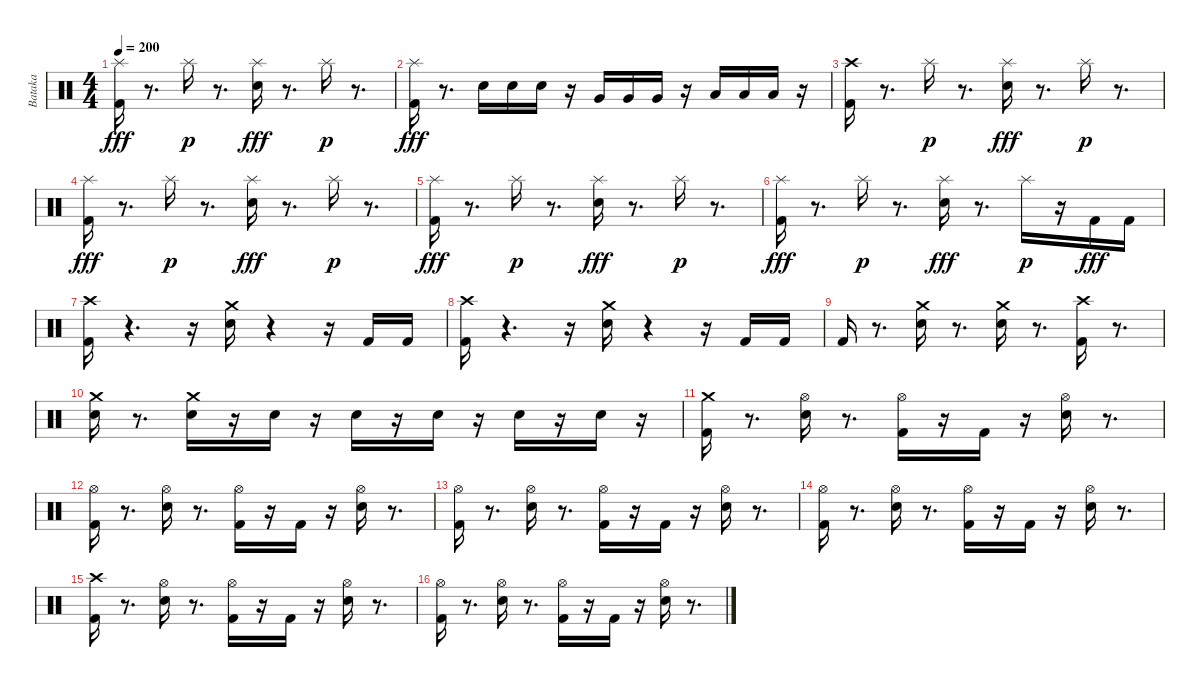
\track ("Bataka" "Bataka") {instrument percussion}
\staff {score}
\articulation defaults
\ts (4 4)
\tempo 200
\clef neutral
\ks c
("Splash (hit)" "Kick (hit) 2").16{dy fff} r.8{d} "Splash (hit)".16{dy p} r.8{d} ("Splash (hit)" "Electric Snare (hit)").16{dy fff} r.8{d} "Splash (hit)".16{dy p} r.8{d} |
("Splash (hit)" "Kick (hit) 2").16{dy fff} r.8{d} "Electric Snare (hit)".16 "Electric Snare (hit)".16 "Electric Snare (hit)".16 r.16 "Very Low Tom (hit)".16 "Very Low Tom (hit)".16 "Very Low Tom (hit)".16 r.16 "Low Floor Tom (hit)".16 "Low Floor Tom (hit)".16 "Low Floor Tom (hit)".16 r.16 |
("Kick (hit) 2" "Crash high (hit)").16 r.8{d} "Splash (hit)".16{dy p} r.8{d} ("Splash (hit)" "Electric Snare (hit)").16{dy fff} r.8{d} "Splash (hit)".16{dy p} r.8{d} |
("Splash (hit)" "Kick (hit) 2").16{dy fff} r.8{d} "Splash (hit)".16{dy p} r.8{d} ("Splash (hit)" "Electric Snare (hit)").16{dy fff} r.8{d} "Splash (hit)".16{dy p} r.8{d} |
("Splash (hit)" "Kick (hit) 2").16{dy fff} r.8{d} "Splash (hit)".16{dy p} r.8{d} ("Splash (hit)" "Electric Snare (hit)").16{dy fff} r.8{d} "Splash (hit)".16{dy p} r.8{d} |
("Splash (hit)" "Kick (hit) 2").16{dy fff} r.8{d} "Splash (hit)".16{dy p} r.8{d} ("Splash (hit)" "Electric Snare (hit)").16{dy fff} r.8{d} "Splash (hit)".16{dy p} r.16 "Kick (hit) 2".16{dy fff} "Kick (hit) 2".16 |
("Kick (hit) 2" "Crash high (hit)").16 r.4{d} r.16 ("Electric Snare (hit)" "Crash medium (hit)").16 r.4 r.16 "Kick (hit) 2".16 "Kick (hit) 2".16 |
("Crash high (hit)" "Kick (hit) 2").16 r.4{d} r.16 ("Crash medium (hit)" "Electric Snare (hit)").16 r.4 r.16 "Kick (hit) 2".16 "Kick (hit) 2".16 |
"Kick (hit) 2".16 r.8{d} ("Electric Snare (hit)" "Crash medium (hit)").16 r.8{d} ("Electric Snare (hit)" "Crash medium (hit)").16 r.8{d} ("Kick (hit) 2" "Crash high (hit)").16 r.8{d} |
("Electric Snare (hit)" "Crash medium (hit)").16 r.8{d} ("Electric Snare (hit)" "Crash medium (hit)").16 r.16 "Electric Snare (hit)".16 r.16 "Electric Snare (hit)".16 r.16 "Electric Snare (hit)".16 r.16 "Electric Snare (hit)".16 r.16 "Electric Snare (hit)".16 r.16 |
("Kick (hit) 2" "Crash medium (hit)").16 r.8{d} ("Electric Snare (hit)" "Hi-Hat (open)").16 r.8{d} ("Kick (hit) 2" "Hi-Hat (open)").16 r.16 "Kick (hit) 2".16 r.16 ("Electric Snare (hit)" "Hi-Hat (open)").16 r.8{d} |
("Kick (hit) 2" "Hi-Hat (open)").16 r.8{d} ("Electric Snare (hit)" "Hi-Hat (open)").16 r.8{d} ("Kick (hit) 2" "Hi-Hat (open)").16 r.16 "Kick (hit) 2".16 r.16 ("Electric Snare (hit)" "Hi-Hat (open)").16 r.8{d} |
("Kick (hit) 2" "Hi-Hat (open)").16 r.8{d} ("Electric Snare (hit)" "Hi-Hat (open)").16 r.8{d} ("Kick (hit) 2" "Hi-Hat (open)").16 r.16 "Kick (hit) 2".16 r.16 ("Electric Snare (hit)" "Hi-Hat (open)").16 r.8{d} |
("Kick (hit) 2" "Hi-Hat (open)").16 r.8{d} ("Electric Snare (hit)" "Hi-Hat (open)").16 r.8{d} ("Kick (hit) 2" "Hi-Hat (open)").16 r.16 "Kick (hit) 2".16 r.16 ("Electric Snare (hit)" "Hi-Hat (open)").16 r.8{d} |
("Kick (hit) 2" "Crash high (hit)").16 r.8{d} ("Electric Snare (hit)" "Hi-Hat (open)").16 r.8{d} ("Kick (hit) 2" "Hi-Hat (open)").16 r.16 "Kick (hit) 2".16 r.16 ("Electric Snare (hit)" "Hi-Hat (open)").16 r.8{d} |
("Kick (hit) 2" "Hi-Hat (open)").16 r.8{d} ("Electric Snare (hit)" "Hi-Hat (open)").16 r.8{d} ("Kick (hit) 2" "Hi-Hat (open)").16 r.16 "Kick (hit) 2".16 r.16 ("Electric Snare (hit)" "Hi-Hat (open)").16 r.8{d}
